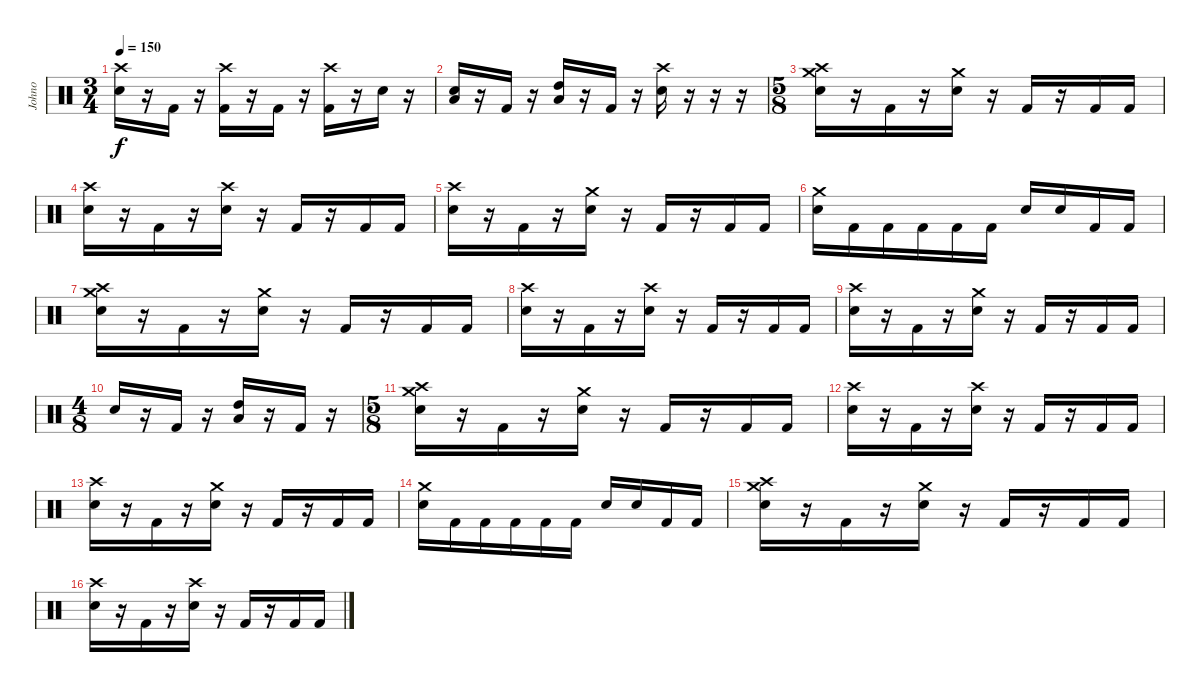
\track ("Johno" "Johno") {instrument percussion}
\staff {score}
\articulation defaults
\ts (3 4)
\tempo 150
\clef neutral
\ks c
("Crash high (hit)" "Electric Snare (hit)").16{dy f} r.16 "Kick (hit) 2".16 r.16 ("Crash high (hit)" "Kick (hit) 2").16 r.16 "Kick (hit) 2".16 r.16 ("Crash high (hit)" "Kick (hit) 2").16 r.16 "Electric Snare (hit)".16 r.16 |
("Low Floor Tom (hit)" "Electric Snare (hit)").16 r.16 "Kick (hit) 2".16 r.16 ("Low Floor Tom (hit)" "High Tom (hit)").16 r.16 "Kick (hit) 2".16 r.16 ("Crash high (hit)" "Electric Snare (hit)").16 r.16 r.16 r.16 |
\ts (5 8)
("Crash high (hit)" "Crash medium (hit)" "Electric Snare (hit)").16 r.16 "Kick (hit) 2".16 r.16 ("Crash medium (hit)" "Electric Snare (hit)").16 r.16 "Kick (hit) 2".16 r.16 "Kick (hit) 2".16 "Kick (hit) 2".16 |
("Crash high (hit)" "Electric Snare (hit)").16 r.16 "Kick (hit) 2".16 r.16 ("Crash high (hit)" "Electric Snare (hit)").16 r.16 "Kick (hit) 2".16 r.16 "Kick (hit) 2".16 "Kick (hit) 2".16 |
("Crash high (hit)" "Electric Snare (hit)").16 r.16 "Kick (hit) 2".16 r.16 ("Crash medium (hit)" "Electric Snare (hit)").16 r.16 "Kick (hit) 2".16 r.16 "Kick (hit) 2".16 "Kick (hit) 2".16 |
("Crash medium (hit)" "Electric Snare (hit)").16 "Kick (hit) 2".16 "Kick (hit) 2".16 "Kick (hit) 2".16 "Kick (hit) 2".16 "Kick (hit) 2".16 "Electric Snare (hit)".16 "Electric Snare (hit)".16 "Kick (hit) 2".16 "Kick (hit) 2".16 |
("Crash high (hit)" "Crash medium (hit)" "Electric Snare (hit)").16 r.16 "Kick (hit) 2".16 r.16 ("Crash medium (hit)" "Electric Snare (hit)").16 r.16 "Kick (hit) 2".16 r.16 "Kick (hit) 2".16 "Kick (hit) 2".16 |
("Crash high (hit)" "Electric Snare (hit)").16 r.16 "Kick (hit) 2".16 r.16 ("Crash high (hit)" "Electric Snare (hit)").16 r.16 "Kick (hit) 2".16 r.16 "Kick (hit) 2".16 "Kick (hit) 2".16 |
("Crash high (hit)" "Electric Snare (hit)").16 r.16 "Kick (hit) 2".16 r.16 ("Crash medium (hit)" "Electric Snare (hit)").16 r.16 "Kick (hit) 2".16 r.16 "Kick (hit) 2".16 "Kick (hit) 2".16 |
\ts (4 8)
"Electric Snare (hit)".16 r.16 "Kick (hit) 2".16 r.16 ("Low Floor Tom (hit)" "High Tom (hit)").16 r.16 "Kick (hit) 2".16 r.16 |
\ts (5 8)
("Crash high (hit)" "Crash medium (hit)" "Electric Snare (hit)").16 r.16 "Kick (hit) 2".16 r.16 ("Crash medium (hit)" "Electric Snare (hit)").16 r.16 "Kick (hit) 2".16 r.16 "Kick (hit) 2".16 "Kick (hit) 2".16 |
("Crash high (hit)" "Electric Snare (hit)").16 r.16 "Kick (hit) 2".16 r.16 ("Crash high (hit)" "Electric Snare (hit)").16 r.16 "Kick (hit) 2".16 r.16 "Kick (hit) 2".16 "Kick (hit) 2".16 |
("Crash high (hit)" "Electric Snare (hit)").16 r.16 "Kick (hit) 2".16 r.16 ("Crash medium (hit)" "Electric Snare (hit)").16 r.16 "Kick (hit) 2".16 r.16 "Kick (hit) 2".16 "Kick (hit) 2".16 |
("Crash medium (hit)" "Electric Snare (hit)").16 "Kick (hit) 2".16 "Kick (hit) 2".16 "Kick (hit) 2".16 "Kick (hit) 2".16 "Kick (hit) 2".16 "Electric Snare (hit)".16 "Electric Snare (hit)".16 "Kick (hit) 2".16 "Kick (hit) 2".16 |
("Crash high (hit)" "Crash medium (hit)" "Electric Snare (hit)").16 r.16 "Kick (hit) 2".16 r.16 ("Crash medium (hit)" "Electric Snare (hit)").16 r.16 "Kick (hit) 2".16 r.16 "Kick (hit) 2".16 "Kick (hit) 2".16 |
("Crash high (hit)" "Electric Snare (hit)").16 r.16 "Kick (hit) 2".16 r.16 ("Crash high (hit)" "Electric Snare (hit)").16 r.16 "Kick (hit) 2".16 r.16 "Kick (hit) 2".16 "Kick (hit) 2".16
